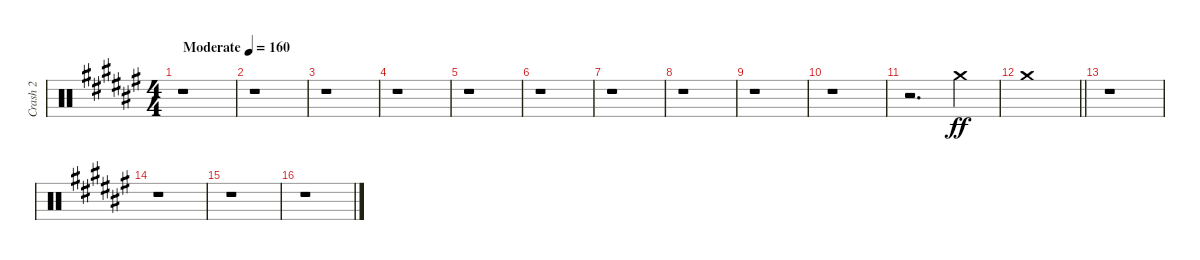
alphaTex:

\track ("Crash 2" "Crash 2") {instrument percussion}
\staff {score}
\articulation defaults
\ts (4 4)
\tempo (160 "Moderate")
\clef neutral
\ks d#minor
r.1{dy ff} |
r.1 |
r.1 |
r.1 |
r.1 |
r.1 |
r.1 |
r.1 |
r.1 |
r.1 |
r.2{d} "Crash medium (hit)".4 |
\barLineRight lightlight "Crash medium (hit)".1
|
r.1 |
r.1 |
r.1 |
r.1
